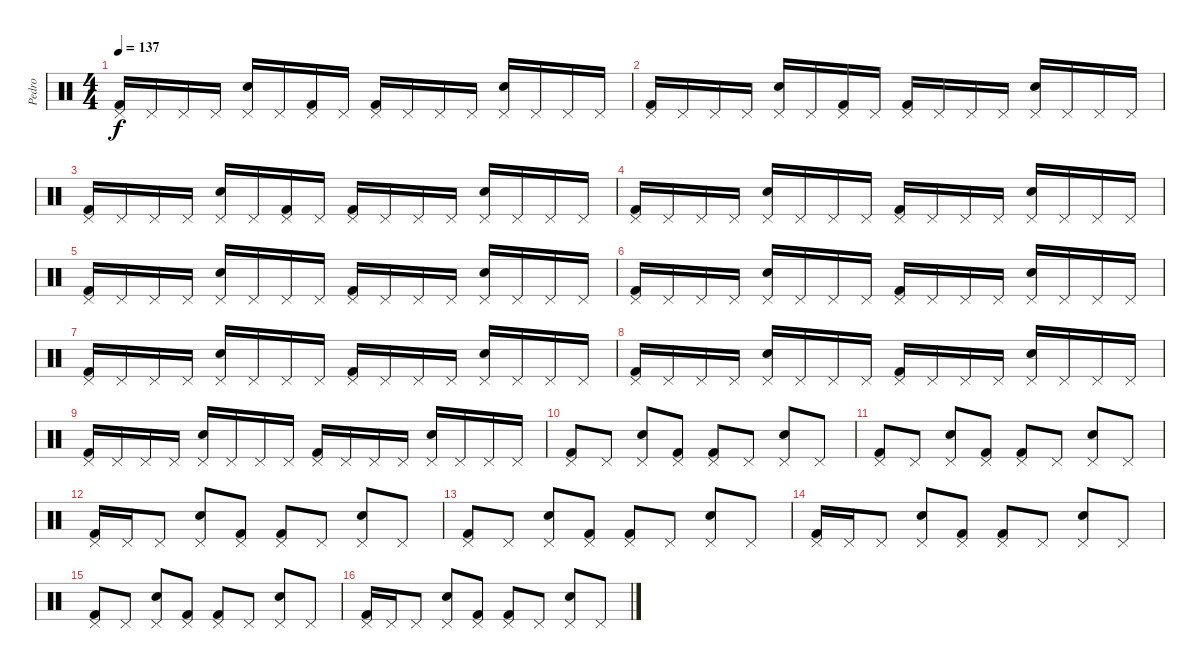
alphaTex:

\track ("Pedro" "Pedro") {instrument percussion}
\staff {score}
\articulation defaults
\ts (4 4)
\tempo 137
\clef neutral
\ks c
("Pedal Hi-Hat (hit)" "Kick (hit) 2").16{dy f} "Pedal Hi-Hat (hit)".16 "Pedal Hi-Hat (hit)".16 "Pedal Hi-Hat (hit)".16 ("Pedal Hi-Hat (hit)" "Snare (hit) 2").16 "Pedal Hi-Hat (hit)".16 ("Pedal Hi-Hat (hit)" "Kick (hit) 2").16 "Pedal Hi-Hat (hit)".16 ("Pedal Hi-Hat (hit)" "Kick (hit) 2").16 "Pedal Hi-Hat (hit)".16 "Pedal Hi-Hat (hit)".16 "Pedal Hi-Hat (hit)".16 ("Pedal Hi-Hat (hit)" "Snare (hit) 2").16 "Pedal Hi-Hat (hit)".16 "Pedal Hi-Hat (hit)".16 "Pedal Hi-Hat (hit)".16 |
("Pedal Hi-Hat (hit)" "Kick (hit) 2").16 "Pedal Hi-Hat (hit)".16 "Pedal Hi-Hat (hit)".16 "Pedal Hi-Hat (hit)".16 ("Pedal Hi-Hat (hit)" "Snare (hit) 2").16 "Pedal Hi-Hat (hit)".16 ("Pedal Hi-Hat (hit)" "Kick (hit) 2").16 "Pedal Hi-Hat (hit)".16 ("Pedal Hi-Hat (hit)" "Kick (hit) 2").16 "Pedal Hi-Hat (hit)".16 "Pedal Hi-Hat (hit)".16 "Pedal Hi-Hat (hit)".16 ("Pedal Hi-Hat (hit)" "Snare (hit) 2").16 "Pedal Hi-Hat (hit)".16 "Pedal Hi-Hat (hit)".16 "Pedal Hi-Hat (hit)".16 |
("Pedal Hi-Hat (hit)" "Kick (hit) 2").16 "Pedal Hi-Hat (hit)".16 "Pedal Hi-Hat (hit)".16 "Pedal Hi-Hat (hit)".16 ("Pedal Hi-Hat (hit)" "Snare (hit) 2").16 "Pedal Hi-Hat (hit)".16 ("Pedal Hi-Hat (hit)" "Kick (hit) 2").16 "Pedal Hi-Hat (hit)".16 ("Pedal Hi-Hat (hit)" "Kick (hit) 2").16 "Pedal Hi-Hat (hit)".16 "Pedal Hi-Hat (hit)".16 "Pedal Hi-Hat (hit)".16 ("Pedal Hi-Hat (hit)" "Snare (hit) 2").16 "Pedal Hi-Hat (hit)".16 "Pedal Hi-Hat (hit)".16 "Pedal Hi-Hat (hit)".16 |
("Pedal Hi-Hat (hit)" "Kick (hit) 2").16 "Pedal Hi-Hat (hit)".16 "Pedal Hi-Hat (hit)".16 "Pedal Hi-Hat (hit)".16 ("Pedal Hi-Hat (hit)" "Snare (hit) 2").16 "Pedal Hi-Hat (hit)".16 "Pedal Hi-Hat (hit)".16 "Pedal Hi-Hat (hit)".16 ("Pedal Hi-Hat (hit)" "Kick (hit) 2").16 "Pedal Hi-Hat (hit)".16 "Pedal Hi-Hat (hit)".16 "Pedal Hi-Hat (hit)".16 ("Pedal Hi-Hat (hit)" "Snare (hit) 2").16 "Pedal Hi-Hat (hit)".16 "Pedal Hi-Hat (hit)".16 "Pedal Hi-Hat (hit)".16 |
("Pedal Hi-Hat (hit)" "Kick (hit) 2").16 "Pedal Hi-Hat (hit)".16 "Pedal Hi-Hat (hit)".16 "Pedal Hi-Hat (hit)".16 ("Pedal Hi-Hat (hit)" "Snare (hit) 2").16 "Pedal Hi-Hat (hit)".16 "Pedal Hi-Hat (hit)".16 "Pedal Hi-Hat (hit)".16 ("Pedal Hi-Hat (hit)" "Kick (hit) 2").16 "Pedal Hi-Hat (hit)".16 "Pedal Hi-Hat (hit)".16 "Pedal Hi-Hat (hit)".16 ("Pedal Hi-Hat (hit)" "Snare (hit) 2").16 "Pedal Hi-Hat (hit)".16 "Pedal Hi-Hat (hit)".16 "Pedal Hi-Hat (hit)".16 |
("Pedal Hi-Hat (hit)" "Kick (hit) 2").16 "Pedal Hi-Hat (hit)".16 "Pedal Hi-Hat (hit)".16 "Pedal Hi-Hat (hit)".16 ("Pedal Hi-Hat (hit)" "Snare (hit) 2").16 "Pedal Hi-Hat (hit)".16 "Pedal Hi-Hat (hit)".16 "Pedal Hi-Hat (hit)".16 ("Pedal Hi-Hat (hit)" "Kick (hit) 2").16 "Pedal Hi-Hat (hit)".16 "Pedal Hi-Hat (hit)".16 "Pedal Hi-Hat (hit)".16 ("Pedal Hi-Hat (hit)" "Snare (hit) 2").16 "Pedal Hi-Hat (hit)".16 "Pedal Hi-Hat (hit)".16 "Pedal Hi-Hat (hit)".16 |
("Pedal Hi-Hat (hit)" "Kick (hit) 2").16 "Pedal Hi-Hat (hit)".16 "Pedal Hi-Hat (hit)".16 "Pedal Hi-Hat (hit)".16 ("Pedal Hi-Hat (hit)" "Snare (hit) 2").16 "Pedal Hi-Hat (hit)".16 "Pedal Hi-Hat (hit)".16 "Pedal Hi-Hat (hit)".16 ("Pedal Hi-Hat (hit)" "Kick (hit) 2").16 "Pedal Hi-Hat (hit)".16 "Pedal Hi-Hat (hit)".16 "Pedal Hi-Hat (hit)".16 ("Pedal Hi-Hat (hit)" "Snare (hit) 2").16 "Pedal Hi-Hat (hit)".16 "Pedal Hi-Hat (hit)".16 "Pedal Hi-Hat (hit)".16 |
("Pedal Hi-Hat (hit)" "Kick (hit) 2").16 "Pedal Hi-Hat (hit)".16 "Pedal Hi-Hat (hit)".16 "Pedal Hi-Hat (hit)".16 ("Pedal Hi-Hat (hit)" "Snare (hit) 2").16 "Pedal Hi-Hat (hit)".16 "Pedal Hi-Hat (hit)".16 "Pedal Hi-Hat (hit)".16 ("Pedal Hi-Hat (hit)" "Kick (hit) 2").16 "Pedal Hi-Hat (hit)".16 "Pedal Hi-Hat (hit)".16 "Pedal Hi-Hat (hit)".16 ("Pedal Hi-Hat (hit)" "Snare (hit) 2").16 "Pedal Hi-Hat (hit)".16 "Pedal Hi-Hat (hit)".16 "Pedal Hi-Hat (hit)".16 |
("Pedal Hi-Hat (hit)" "Kick (hit) 2").16 "Pedal Hi-Hat (hit)".16 "Pedal Hi-Hat (hit)".16 "Pedal Hi-Hat (hit)".16 ("Pedal Hi-Hat (hit)" "Snare (hit) 2").16 "Pedal Hi-Hat (hit)".16 "Pedal Hi-Hat (hit)".16 "Pedal Hi-Hat (hit)".16 ("Pedal Hi-Hat (hit)" "Kick (hit) 2").16 "Pedal Hi-Hat (hit)".16 "Pedal Hi-Hat (hit)".16 "Pedal Hi-Hat (hit)".16 ("Pedal Hi-Hat (hit)" "Snare (hit) 2").16 "Pedal Hi-Hat (hit)".16 "Pedal Hi-Hat (hit)".16 "Pedal Hi-Hat (hit)".16 |
("Pedal Hi-Hat (hit)" "Kick (hit) 2").8 "Pedal Hi-Hat (hit)".8 ("Pedal Hi-Hat (hit)" "Snare (hit) 2").8 ("Pedal Hi-Hat (hit)" "Kick (hit) 2").8 ("Pedal Hi-Hat (hit)" "Kick (hit) 2").8 "Pedal Hi-Hat (hit)".8 ("Pedal Hi-Hat (hit)" "Snare (hit) 2").8 "Pedal Hi-Hat (hit)".8 |
("Pedal Hi-Hat (hit)" "Kick (hit) 2").8 "Pedal Hi-Hat (hit)".8 ("Pedal Hi-Hat (hit)" "Snare (hit) 2").8 ("Pedal Hi-Hat (hit)" "Kick (hit) 2").8 ("Pedal Hi-Hat (hit)" "Kick (hit) 2").8 "Pedal Hi-Hat (hit)".8 ("Pedal Hi-Hat (hit)" "Snare (hit) 2").8 "Pedal Hi-Hat (hit)".8 |
("Pedal Hi-Hat (hit)" "Kick (hit) 2").16 "Pedal Hi-Hat (hit)".16 "Pedal Hi-Hat (hit)".8 ("Pedal Hi-Hat (hit)" "Snare (hit) 2").8 ("Pedal Hi-Hat (hit)" "Kick (hit) 2").8 ("Pedal Hi-Hat (hit)" "Kick (hit) 2").8 "Pedal Hi-Hat (hit)".8 ("Pedal Hi-Hat (hit)" "Snare (hit) 2").8 "Pedal Hi-Hat (hit)".8 |
("Kick (hit) 2" "Pedal Hi-Hat (hit)").8 "Pedal Hi-Hat (hit)".8 ("Snare (hit) 2" "Pedal Hi-Hat (hit)").8 ("Kick (hit) 2" "Pedal Hi-Hat (hit)").8 ("Kick (hit) 2" "Pedal Hi-Hat (hit)").8 "Pedal Hi-Hat (hit)".8 ("Snare (hit) 2" "Pedal Hi-Hat (hit)").8 "Pedal Hi-Hat (hit)".8 |
("Pedal Hi-Hat (hit)" "Kick (hit) 2").16 "Pedal Hi-Hat (hit)".16 "Pedal Hi-Hat (hit)".8 ("Pedal Hi-Hat (hit)" "Snare (hit) 2").8 ("Pedal Hi-Hat (hit)" "Kick (hit) 2").8 ("Pedal Hi-Hat (hit)" "Kick (hit) 2").8 "Pedal Hi-Hat (hit)".8 ("Pedal Hi-Hat (hit)" "Snare (hit) 2").8 "Pedal Hi-Hat (hit)".8 |
("Pedal Hi-Hat (hit)" "Kick (hit) 2").8 "Pedal Hi-Hat (hit)".8 ("Pedal Hi-Hat (hit)" "Snare (hit) 2").8 ("Pedal Hi-Hat (hit)" "Kick (hit) 2").8 ("Pedal Hi-Hat (hit)" "Kick (hit) 2").8 "Pedal Hi-Hat (hit)".8 ("Pedal Hi-Hat (hit)" "Snare (hit) 2").8 "Pedal Hi-Hat (hit)".8 |
("Pedal Hi-Hat (hit)" "Kick (hit) 2").16 "Pedal Hi-Hat (hit)".16 "Pedal Hi-Hat (hit)".8 ("Pedal Hi-Hat (hit)" "Snare (hit) 2").8 ("Pedal Hi-Hat (hit)" "Kick (hit) 2").8 ("Pedal Hi-Hat (hit)" "Kick (hit) 2").8 "Pedal Hi-Hat (hit)".8 ("Pedal Hi-Hat (hit)" "Snare (hit) 2").8 "Pedal Hi-Hat (hit)".8
